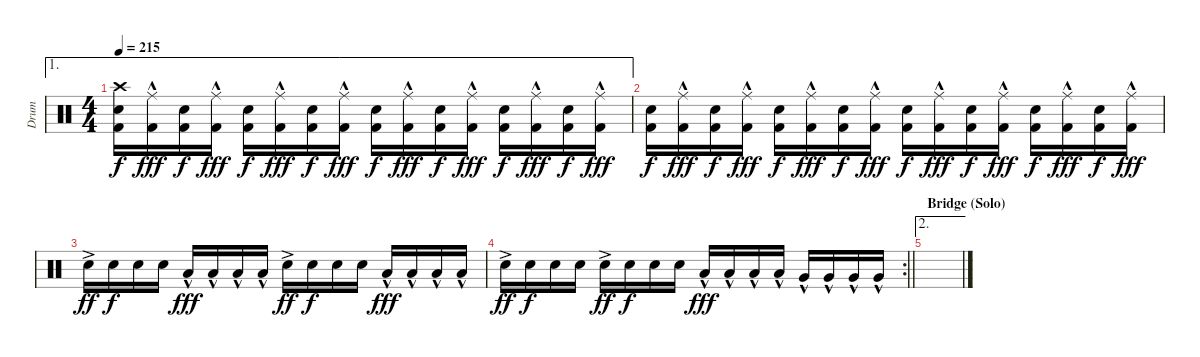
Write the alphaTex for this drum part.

\track ("Drum" "Drum") {instrument percussion}
\staff {score}
\articulation defaults
\ae 1
\ts (4 4)
\tempo 215
\clef neutral
\ks c
("Crash high (hit)" "Electric Snare (hit)" "Kick (hit) 2").16{dy f} ("Ride (middle)"{hac} "Kick (hit) 2").16{dy fff} ("Electric Snare (hit)" "Kick (hit) 2").16{dy f} ("Ride (middle)"{hac} "Kick (hit) 2").16{dy fff} ("Electric Snare (hit)" "Kick (hit) 2").16{dy f} ("Ride (middle)"{hac} "Kick (hit) 2").16{dy fff} ("Electric Snare (hit)" "Kick (hit) 2").16{dy f} ("Ride (middle)"{hac} "Kick (hit) 2").16{dy fff} ("Electric Snare (hit)" "Kick (hit) 2").16{dy f} ("Ride (middle)"{hac} "Kick (hit) 2").16{dy fff} ("Electric Snare (hit)" "Kick (hit) 2").16{dy f} ("Ride (middle)"{hac} "Kick (hit) 2").16{dy fff} ("Electric Snare (hit)" "Kick (hit) 2").16{dy f} ("Ride (middle)"{hac} "Kick (hit) 2").16{dy fff} ("Electric Snare (hit)" "Kick (hit) 2").16{dy f} ("Ride (middle)"{hac} "Kick (hit) 2").16{dy fff} |
("Electric Snare (hit)" "Kick (hit) 2").16{dy f} ("Ride (middle)"{hac} "Kick (hit) 2").16{dy fff} ("Electric Snare (hit)" "Kick (hit) 2").16{dy f} ("Ride (middle)"{hac} "Kick (hit) 2").16{dy fff} ("Electric Snare (hit)" "Kick (hit) 2").16{dy f} ("Ride (middle)"{hac} "Kick (hit) 2").16{dy fff} ("Electric Snare (hit)" "Kick (hit) 2").16{dy f} ("Ride (middle)"{hac} "Kick (hit) 2").16{dy fff} ("Electric Snare (hit)" "Kick (hit) 2").16{dy f} ("Ride (middle)"{hac} "Kick (hit) 2").16{dy fff} ("Electric Snare (hit)" "Kick (hit) 2").16{dy f} ("Ride (middle)"{hac} "Kick (hit) 2").16{dy fff} ("Electric Snare (hit)" "Kick (hit) 2").16{dy f} ("Ride (middle)"{hac} "Kick (hit) 2").16{dy fff} ("Electric Snare (hit)" "Kick (hit) 2").16{dy f} ("Ride (middle)"{hac} "Kick (hit) 2").16{dy fff} |
"Electric Snare (hit)"{ac}.16{dy ff} "Electric Snare (hit)".16{dy f} "Electric Snare (hit)".16 "Electric Snare (hit)".16 "Low Tom (hit)"{hac}.16{dy fff} "Low Tom (hit)"{hac}.16 "Low Tom (hit)"{hac}.16 "Low Tom (hit)"{hac}.16 "Electric Snare (hit)"{ac}.16{dy ff} "Electric Snare (hit)".16{dy f} "Electric Snare (hit)".16 "Electric Snare (hit)".16 "Low Tom (hit)"{hac}.16{dy fff} "Low Tom (hit)"{hac}.16 "Low Tom (hit)"{hac}.16 "Low Tom (hit)"{hac}.16 |
\rc 2
\barLineRight lightlight "Electric Snare (hit)"{ac}.16{dy ff} "Electric Snare (hit)".16{dy f} "Electric Snare (hit)".16 "Electric Snare (hit)".16 "Electric Snare (hit)"{ac}.16{dy ff} "Electric Snare (hit)".16{dy f} "Electric Snare (hit)".16 "Electric Snare (hit)".16 "Low Tom (hit)"{hac}.16{dy fff} "Low Tom (hit)"{hac}.16 "Low Tom (hit)"{hac}.16 "Low Tom (hit)"{hac}.16 "Very Low Tom (hit)"{hac}.16 "Very Low Tom (hit)"{hac}.16 "Very Low Tom (hit)"{hac}.16 "Very Low Tom (hit)"{hac}.16
|
\ae 2
\section ("" "Bridge (Solo)")
